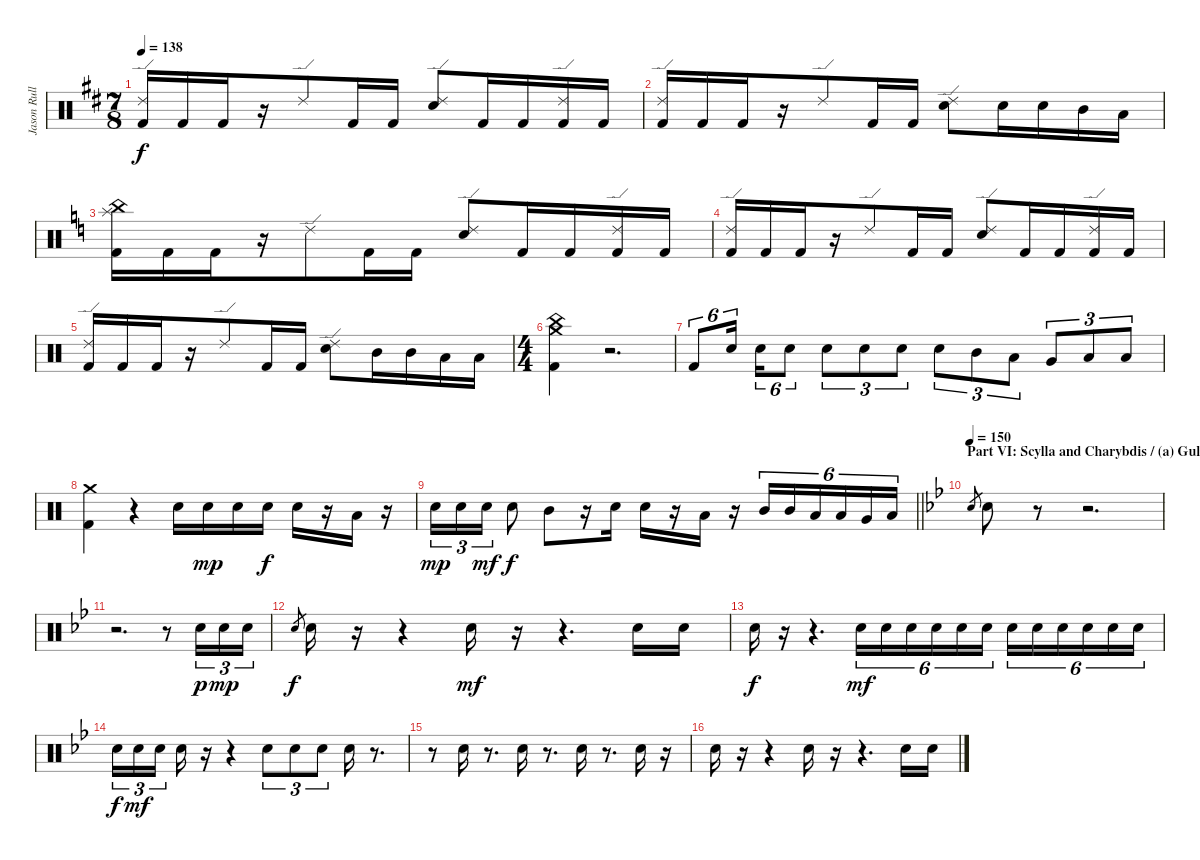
\track ("Jason Rullo (drums)" "Jason Rull") {instrument percussion}
\staff {score}
\articulation defaults
\ts (7 8)
\tempo 138
\clef neutral
\ks bminor
("Ride (edge) 2" "Kick (hit) 2").16{dy f} "Kick (hit) 2".16 "Kick (hit) 2".16 r.16 "Ride (edge) 2".8 "Kick (hit) 2".16 "Kick (hit) 2".16 ("Ride (edge) 2" "Electric Snare (hit)").8 "Kick (hit) 2".16 "Kick (hit) 2".16 ("Ride (edge) 2" "Kick (hit) 2").16 "Kick (hit) 2".16 |
("Ride (edge) 2" "Kick (hit) 2").16 "Kick (hit) 2".16 "Kick (hit) 2".16 r.16 "Ride (edge) 2".8 "Kick (hit) 2".16 "Kick (hit) 2".16 ("Ride (edge) 2" "Electric Snare (hit)").8 "Electric Snare (hit)".16 "Electric Snare (hit)".16 "Mid Tom (hit)".16 "Low Tom (hit)".16 |
\ks aminor
("Splash (hit)" "China (hit)" "Kick (hit) 2").16 "Kick (hit) 2".16 "Kick (hit) 2".16 r.16 "Ride (edge) 2".8 "Kick (hit) 2".16 "Kick (hit) 2".16 ("Ride (edge) 2" "Electric Snare (hit)").8 "Kick (hit) 2".16 "Kick (hit) 2".16 ("Ride (edge) 2" "Kick (hit) 2").16 "Kick (hit) 2".16 |
("Ride (edge) 2" "Kick (hit) 2").16 "Kick (hit) 2".16 "Kick (hit) 2".16 r.16 "Ride (edge) 2".8 "Kick (hit) 2".16 "Kick (hit) 2".16 ("Ride (edge) 2" "Electric Snare (hit)").8 "Kick (hit) 2".16 "Kick (hit) 2".16 ("Ride (edge) 2" "Kick (hit) 2").16 "Kick (hit) 2".16 |
("Ride (edge) 2" "Kick (hit) 2").16 "Kick (hit) 2".16 "Kick (hit) 2".16 r.16 "Ride (edge) 2".8 "Kick (hit) 2".16 "Kick (hit) 2".16 ("Ride (edge) 2" "Electric Snare (hit)").8 "Mid Tom (hit)".16 "Mid Tom (hit)".16 "Low Tom (hit)".16 "Low Tom (hit)".16 |
\ts (4 4)
("China (hit)" "Crash medium (hit)" "Kick (hit) 2").4 r.2{d} |
"Kick (hit) 2".8{tu (6 4)} "Electric Snare (hit)".16{tu (6 4)} "Electric Snare (hit)".16{tu (6 4)} "Electric Snare (hit)".8{tu (6 4)} "Electric Snare (hit)".8{tu (3 2)} "Electric Snare (hit)".8{tu (3 2)} "Electric Snare (hit)".8{tu (3 2)} "Electric Snare (hit)".8{tu (3 2)} "Mid Tom (hit)".8{tu (3 2)} "Low Tom (hit)".8{tu (3 2)} "Very Low Tom (hit)".8{tu (3 2)} "Low Floor Tom (hit)".8{tu (3 2)} "Low Floor Tom (hit)".8{tu (3 2)} |
("Crash medium (hit)" "Kick (hit) 2").4 r.4 "Electric Snare (hit)".16 "Electric Snare (hit)".16{dy mp} "Electric Snare (hit)".16 "Electric Snare (hit)".16{dy f} "Electric Snare (hit)".16 r.16 "Low Tom (hit)".16 r.16 |
\barLineRight lightlight "Electric Snare (hit)".16{tu (3 2) dy mp} "Electric Snare (hit)".16{tu (3 2)} "Electric Snare (hit)".16{tu (3 2) dy mf} "Electric Snare (hit)".8{dy f} "Mid Tom (hit)".8
r.16 "Electric Snare (hit)".16 "Electric Snare (hit)".16 r.16 "Low Tom (hit)".16 r.16 "Mid Tom (hit)".16{tu (6 4)} "Mid Tom (hit)".16{tu (6 4)} "Low Tom (hit)".16{tu (6 4)} "Low Tom (hit)".16{tu (6 4)} "Very Low Tom (hit)".16{tu (6 4)} "Low Floor Tom (hit)".16{tu (6 4)} |
\section ("" "Part VI: Scylla and Charybdis / (a) Gulf of Doom")
\tempo 150
\ks gminor "Electric Snare (hit)".8{gr} "Electric Snare (hit)".8
r.8 r.2{d} |
r.2{d} r.8 "Electric Snare (hit)".16{tu (3 2) dy p} "Electric Snare (hit)".16{tu (3 2) dy mp} "Electric Snare (hit)".16{tu (3 2)} |
"Electric Snare (hit)".8{gr dy f} "Electric Snare (hit)".16 r.16 r.4 "Electric Snare (hit)".16{dy mf} r.16 r.4{d} "Electric Snare (hit)".16 "Electric Snare (hit)".16 |
"Electric Snare (hit)".16{dy f} r.16 r.4{d} "Electric Snare (hit)".16{tu (6 4) dy mf volume 0} "Electric Snare (hit)".16{tu (6 4) volume 1} "Electric Snare (hit)".16{tu (6 4) volume 2} "Electric Snare (hit)".16{tu (6 4) volume 3} "Electric Snare (hit)".16{tu (6 4) volume 4} "Electric Snare (hit)".16{tu (6 4) volume 5} "Electric Snare (hit)".16{tu (6 4) volume 6} "Electric Snare (hit)".16{tu (6 4) volume 6} "Electric Snare (hit)".16{tu (6 4) volume 8} "Electric Snare (hit)".16{tu (6 4) volume 8} "Electric Snare (hit)".16{tu (6 4) volume 9} "Electric Snare (hit)".16{tu (6 4) volume 10} |
"Electric Snare (hit)".16{tu (3 2) dy f volume 11} "Electric Snare (hit)".16{tu (3 2) dy mf volume 12} "Electric Snare (hit)".16{tu (3 2) volume 13 beam splitsecondary} "Electric Snare (hit)".16{volume 14} r.16 r.4 "Electric Snare (hit)".8{tu (3 2) volume 15} "Electric Snare (hit)".8{tu (3 2)} "Electric Snare (hit)".8{tu (3 2)} "Electric Snare (hit)".16 r.8{d} |
r.8 "Electric Snare (hit)".16 r.8{d} "Electric Snare (hit)".16 r.8{d} "Electric Snare (hit)".16 r.8{d} "Electric Snare (hit)".16 r.16 |
"Electric Snare (hit)".16 r.16 r.4 "Electric Snare (hit)".16 r.16 r.4{d} "Electric Snare (hit)".16 "Electric Snare (hit)".16
